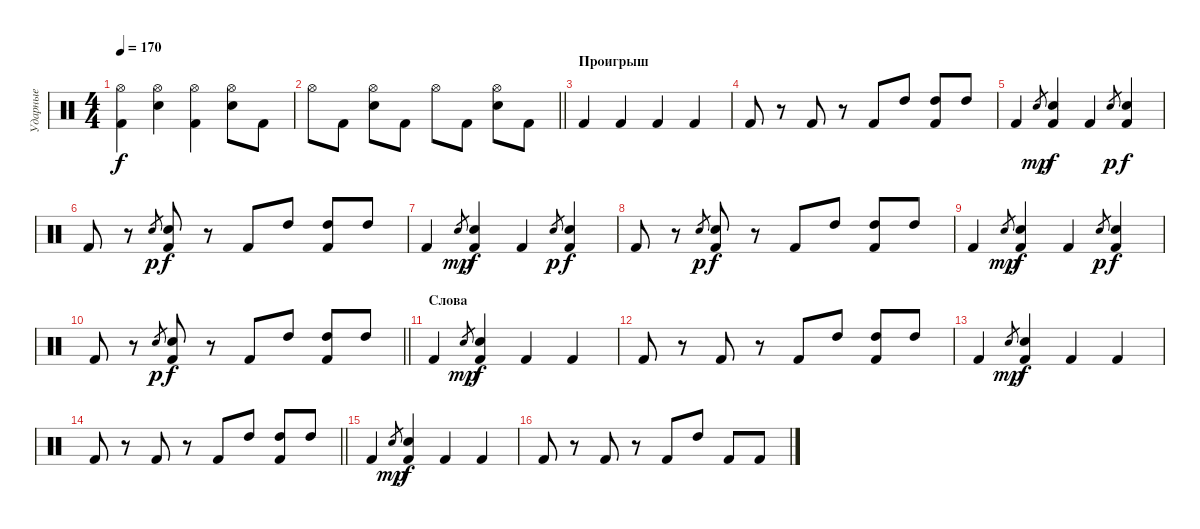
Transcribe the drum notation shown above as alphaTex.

\track ("Ударные" "Ударные") {instrument percussion}
\staff {score}
\articulation defaults
\ts (4 4)
\tempo 170
\clef neutral
\ks c
("Hi-Hat (open)" "Kick (hit) 2").4{dy f} ("Hi-Hat (open)" "Electric Snare (hit)").4 ("Hi-Hat (open)" "Kick (hit) 2").4 ("Hi-Hat (open)" "Electric Snare (hit)").8 "Kick (hit) 2".8 |
\barLineRight lightlight "Hi-Hat (open)".8 "Kick (hit) 2".8
("Hi-Hat (open)" "Electric Snare (hit)").8 "Kick (hit) 2".8 "Hi-Hat (open)".8 "Kick (hit) 2".8 ("Hi-Hat (open)" "Electric Snare (hit)").8 "Kick (hit) 2".8 |
\section ("" "Проигрыш")
"Kick (hit) 2".4 "Kick (hit) 2".4 "Kick (hit) 2".4 "Kick (hit) 2".4 |
"Kick (hit) 2".8 r.8 "Kick (hit) 2".8 r.8 "Kick (hit) 2".8 "High Tom (hit)".8 ("High Tom (hit)" "Kick (hit) 2").8 "High Tom (hit)".8 |
"Kick (hit) 2".4 "Electric Snare (hit)".8{gr dy mp} ("Electric Snare (hit)" "Kick (hit) 2").4{dy f} "Kick (hit) 2".4 "Electric Snare (hit)".8{gr dy p} ("Electric Snare (hit)" "Kick (hit) 2").4{dy f} |
"Kick (hit) 2".8 r.8 "Electric Snare (hit)".8{gr dy p} ("Electric Snare (hit)" "Kick (hit) 2").8{dy f} r.8 "Kick (hit) 2".8 "High Tom (hit)".8 ("High Tom (hit)" "Kick (hit) 2").8 "High Tom (hit)".8 |
"Kick (hit) 2".4 "Electric Snare (hit)".8{gr dy mp} ("Electric Snare (hit)" "Kick (hit) 2").4{dy f} "Kick (hit) 2".4 "Electric Snare (hit)".8{gr dy p} ("Electric Snare (hit)" "Kick (hit) 2").4{dy f} |
"Kick (hit) 2".8 r.8 "Electric Snare (hit)".8{gr dy p} ("Electric Snare (hit)" "Kick (hit) 2").8{dy f} r.8 "Kick (hit) 2".8 "High Tom (hit)".8 ("High Tom (hit)" "Kick (hit) 2").8 "High Tom (hit)".8 |
"Kick (hit) 2".4 "Electric Snare (hit)".8{gr dy mp} ("Electric Snare (hit)" "Kick (hit) 2").4{dy f} "Kick (hit) 2".4 "Electric Snare (hit)".8{gr dy p} ("Electric Snare (hit)" "Kick (hit) 2").4{dy f} |
\barLineRight lightlight "Kick (hit) 2".8
r.8 "Electric Snare (hit)".8{gr dy p} ("Electric Snare (hit)" "Kick (hit) 2").8{dy f} r.8 "Kick (hit) 2".8 "High Tom (hit)".8 ("High Tom (hit)" "Kick (hit) 2").8 "High Tom (hit)".8 |
\section ("" "Слова")
"Kick (hit) 2".4 "Electric Snare (hit)".8{gr dy mp} ("Electric Snare (hit)" "Kick (hit) 2").4{dy f} "Kick (hit) 2".4 "Kick (hit) 2".4 |
"Kick (hit) 2".8 r.8 "Kick (hit) 2".8 r.8 "Kick (hit) 2".8 "High Tom (hit)".8 ("High Tom (hit)" "Kick (hit) 2").8 "High Tom (hit)".8 |
"Kick (hit) 2".4 "Electric Snare (hit)".8{gr dy mp} ("Electric Snare (hit)" "Kick (hit) 2").4{dy f} "Kick (hit) 2".4 "Kick (hit) 2".4 |
\barLineRight lightlight "Kick (hit) 2".8
r.8 "Kick (hit) 2".8 r.8 "Kick (hit) 2".8 "High Tom (hit)".8 ("High Tom (hit)" "Kick (hit) 2").8 "High Tom (hit)".8 |
"Kick (hit) 2".4 "Electric Snare (hit)".8{gr dy mp} ("Electric Snare (hit)" "Kick (hit) 2").4{dy f} "Kick (hit) 2".4 "Kick (hit) 2".4 |
"Kick (hit) 2".8 r.8 "Kick (hit) 2".8 r.8 "Kick (hit) 2".8 "High Tom (hit)".8 "Kick (hit) 2".8 "Kick (hit) 2".8
